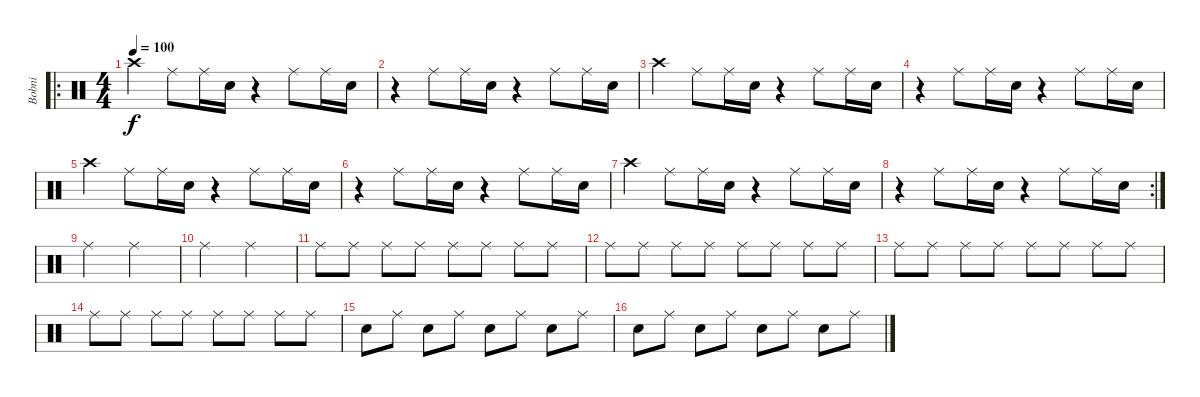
\track ("Bobni" "Bobni") {instrument percussion}
\staff {score}
\articulation defaults
\ro
\ts (4 4)
\tempo 100
\clef neutral
\ks c "Crash high (hit)".4{dy f} "Ride (middle)".8 "Ride (middle)".16 "Snare (hit) 2".16
r.4 "Ride (middle)".8 "Ride (middle)".16 "Snare (hit) 2".16 |
r.4 "Ride (middle)".8 "Ride (middle)".16 "Snare (hit) 2".16 r.4 "Ride (middle)".8 "Ride (middle)".16 "Snare (hit) 2".16 |
"Crash high (hit)".4 "Ride (middle)".8 "Ride (middle)".16 "Snare (hit) 2".16 r.4 "Ride (middle)".8 "Ride (middle)".16 "Snare (hit) 2".16 |
r.4 "Ride (middle)".8 "Ride (middle)".16 "Snare (hit) 2".16 r.4 "Ride (middle)".8 "Ride (middle)".16 "Snare (hit) 2".16 |
"Crash high (hit)".4 "Ride (middle)".8 "Ride (middle)".16 "Snare (hit) 2".16 r.4 "Ride (middle)".8 "Ride (middle)".16 "Snare (hit) 2".16 |
r.4 "Ride (middle)".8 "Ride (middle)".16 "Snare (hit) 2".16 r.4 "Ride (middle)".8 "Ride (middle)".16 "Snare (hit) 2".16 |
"Crash high (hit)".4 "Ride (middle)".8 "Ride (middle)".16 "Snare (hit) 2".16 r.4 "Ride (middle)".8 "Ride (middle)".16 "Snare (hit) 2".16 |
\rc 2
r.4 "Ride (middle)".8 "Ride (middle)".16 "Snare (hit) 2".16 r.4 "Ride (middle)".8 "Ride (middle)".16 "Snare (hit) 2".16 |
"Ride (middle)".2 "Ride (middle)".2 |
"Ride (middle)".2 "Ride (middle)".2 |
"Ride (middle)".8 "Ride (middle)".8 "Ride (middle)".8 "Ride (middle)".8 "Ride (middle)".8 "Ride (middle)".8 "Ride (middle)".8 "Ride (middle)".8 |
"Ride (middle)".8 "Ride (middle)".8 "Ride (middle)".8 "Ride (middle)".8 "Ride (middle)".8 "Ride (middle)".8 "Ride (middle)".8 "Ride (middle)".8 |
"Ride (middle)".8 "Ride (middle)".8 "Ride (middle)".8 "Ride (middle)".8 "Ride (middle)".8 "Ride (middle)".8 "Ride (middle)".8 "Ride (middle)".8 |
"Ride (middle)".8 "Ride (middle)".8 "Ride (middle)".8 "Ride (middle)".8 "Ride (middle)".8 "Ride (middle)".8 "Ride (middle)".8 "Ride (middle)".8 |
"Snare (hit) 2".8 "Ride (middle)".8 "Snare (hit) 2".8 "Ride (middle)".8 "Snare (hit) 2".8 "Ride (middle)".8 "Snare (hit) 2".8 "Ride (middle)".8 |
"Snare (hit) 2".8 "Ride (middle)".8 "Snare (hit) 2".8 "Ride (middle)".8 "Snare (hit) 2".8 "Ride (middle)".8 "Snare (hit) 2".8 "Ride (middle)".8
